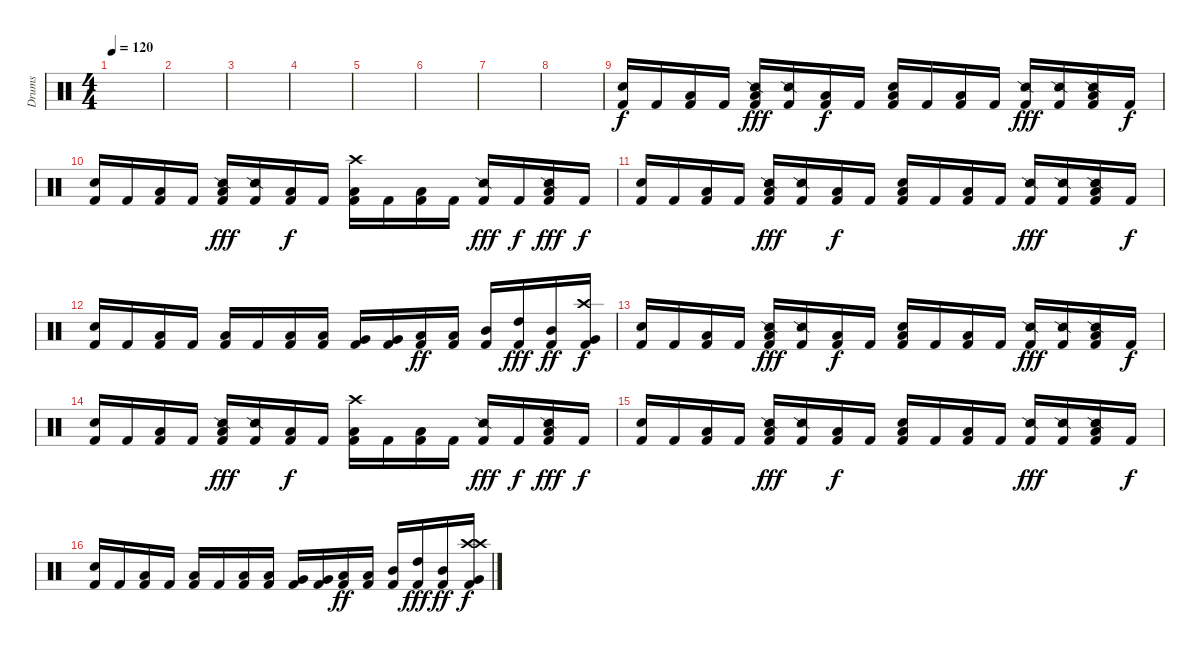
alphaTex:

\track ("Drums" "Drums") {instrument percussion}
\staff {score}
\articulation defaults
\ts (4 4)
\tempo 120
\clef neutral
\ks c
|
|
|
|
|
|
|
|
("Snare (hit) 2" "Kick (hit) 2").16 "Kick (hit) 2".16 ("Low Floor Tom (hit)" "Kick (hit) 2").16 "Kick (hit) 2".16 ("Snare (side stick) 2" "Low Floor Tom (hit)" "Kick (hit) 2").16{dy fff} ("Snare (side stick) 2" "Kick (hit) 2").16 ("Low Floor Tom (hit)" "Kick (hit) 2").16{dy f} "Kick (hit) 2".16 ("Snare (hit) 2" "Low Floor Tom (hit)" "Kick (hit) 2").16 "Kick (hit) 2".16 ("Low Floor Tom (hit)" "Kick (hit) 2").16 "Kick (hit) 2".16 ("Snare (side stick) 2" "Kick (hit) 2").16{dy fff} ("Snare (side stick) 2" "Kick (hit) 2").16 ("Snare (side stick) 2" "Low Floor Tom (hit)" "Kick (hit) 2").16 "Kick (hit) 2".16{dy f} |
("Snare (hit) 2" "Kick (hit) 2").16 "Kick (hit) 2".16 ("Low Floor Tom (hit)" "Kick (hit) 2").16 "Kick (hit) 2".16 ("Snare (side stick) 2" "Low Floor Tom (hit)" "Kick (hit) 2").16{dy fff} ("Snare (side stick) 2" "Kick (hit) 2").16 ("Low Floor Tom (hit)" "Kick (hit) 2").16{dy f} "Kick (hit) 2".16 ("Crash high (hit)" "Low Floor Tom (hit)" "Kick (hit) 2").16 "Kick (hit) 2".16 ("Low Floor Tom (hit)" "Kick (hit) 2").16 "Kick (hit) 2".16 ("Snare (side stick) 2" "Kick (hit) 2").16{dy fff} "Kick (hit) 2".16{dy f} ("Snare (side stick) 2" "Low Floor Tom (hit)" "Kick (hit) 2").16{dy fff} "Kick (hit) 2".16{dy f} |
("Snare (hit) 2" "Kick (hit) 2").16 "Kick (hit) 2".16 ("Low Floor Tom (hit)" "Kick (hit) 2").16 "Kick (hit) 2".16 ("Snare (side stick) 2" "Low Floor Tom (hit)" "Kick (hit) 2").16{dy fff} ("Snare (side stick) 2" "Kick (hit) 2").16 ("Low Floor Tom (hit)" "Kick (hit) 2").16{dy f} "Kick (hit) 2".16 ("Snare (hit) 2" "Low Floor Tom (hit)" "Kick (hit) 2").16 "Kick (hit) 2".16 ("Low Floor Tom (hit)" "Kick (hit) 2").16 "Kick (hit) 2".16 ("Snare (side stick) 2" "Kick (hit) 2").16{dy fff} ("Snare (side stick) 2" "Kick (hit) 2").16 ("Snare (side stick) 2" "Low Floor Tom (hit)" "Kick (hit) 2").16 "Kick (hit) 2".16{dy f} |
("Snare (hit) 2" "Kick (hit) 2").16 "Kick (hit) 2".16 ("Low Floor Tom (hit)" "Kick (hit) 2").16 "Kick (hit) 2".16 ("Low Floor Tom (hit)" "Kick (hit) 2").16 "Kick (hit) 2".16 ("Low Floor Tom (hit)" "Kick (hit) 2").16 ("Low Floor Tom (hit)" "Kick (hit) 2").16 ("Very Low Tom (hit)" "Kick (hit) 2").16 ("Very Low Tom (hit)" "Kick (hit) 2").16 ("Low Tom (hit)" "Kick (hit) 2").16{dy ff} ("Low Tom (hit)" "Kick (hit) 2").16 ("Mid Tom (hit)" "Kick (hit) 2").16 ("High Tom (hit)" "Kick (hit) 2").16{dy fff} ("Mid Tom (hit)" "Kick (hit) 2").16{dy ff} ("Crash high (hit)" "Very Low Tom (hit)" "Kick (hit) 2").16{dy f} |
("Snare (hit) 2" "Kick (hit) 2").16 "Kick (hit) 2".16 ("Low Floor Tom (hit)" "Kick (hit) 2").16 "Kick (hit) 2".16 ("Snare (side stick) 2" "Low Floor Tom (hit)" "Kick (hit) 2").16{dy fff} ("Snare (side stick) 2" "Kick (hit) 2").16 ("Low Floor Tom (hit)" "Kick (hit) 2").16{dy f} "Kick (hit) 2".16 ("Snare (hit) 2" "Low Floor Tom (hit)" "Kick (hit) 2").16 "Kick (hit) 2".16 ("Low Floor Tom (hit)" "Kick (hit) 2").16 "Kick (hit) 2".16 ("Snare (side stick) 2" "Kick (hit) 2").16{dy fff} ("Snare (side stick) 2" "Kick (hit) 2").16 ("Snare (side stick) 2" "Low Floor Tom (hit)" "Kick (hit) 2").16 "Kick (hit) 2".16{dy f} |
("Snare (hit) 2" "Kick (hit) 2").16 "Kick (hit) 2".16 ("Low Floor Tom (hit)" "Kick (hit) 2").16 "Kick (hit) 2".16 ("Snare (side stick) 2" "Low Floor Tom (hit)" "Kick (hit) 2").16{dy fff} ("Snare (side stick) 2" "Kick (hit) 2").16 ("Low Floor Tom (hit)" "Kick (hit) 2").16{dy f} "Kick (hit) 2".16 ("Crash high (hit)" "Low Floor Tom (hit)" "Kick (hit) 2").16 "Kick (hit) 2".16 ("Low Floor Tom (hit)" "Kick (hit) 2").16 "Kick (hit) 2".16 ("Snare (side stick) 2" "Kick (hit) 2").16{dy fff} "Kick (hit) 2".16{dy f} ("Snare (side stick) 2" "Low Floor Tom (hit)" "Kick (hit) 2").16{dy fff} "Kick (hit) 2".16{dy f} |
("Snare (hit) 2" "Kick (hit) 2").16 "Kick (hit) 2".16 ("Low Floor Tom (hit)" "Kick (hit) 2").16 "Kick (hit) 2".16 ("Snare (side stick) 2" "Low Floor Tom (hit)" "Kick (hit) 2").16{dy fff} ("Snare (side stick) 2" "Kick (hit) 2").16 ("Low Floor Tom (hit)" "Kick (hit) 2").16{dy f} "Kick (hit) 2".16 ("Snare (hit) 2" "Low Floor Tom (hit)" "Kick (hit) 2").16 "Kick (hit) 2".16 ("Low Floor Tom (hit)" "Kick (hit) 2").16 "Kick (hit) 2".16 ("Snare (side stick) 2" "Kick (hit) 2").16{dy fff} ("Snare (side stick) 2" "Kick (hit) 2").16 ("Snare (side stick) 2" "Low Floor Tom (hit)" "Kick (hit) 2").16 "Kick (hit) 2".16{dy f} |
("Snare (hit) 2" "Kick (hit) 2").16 "Kick (hit) 2".16 ("Low Floor Tom (hit)" "Kick (hit) 2").16 "Kick (hit) 2".16 ("Low Floor Tom (hit)" "Kick (hit) 2").16 "Kick (hit) 2".16 ("Low Floor Tom (hit)" "Kick (hit) 2").16 ("Low Floor Tom (hit)" "Kick (hit) 2").16 ("Very Low Tom (hit)" "Kick (hit) 2").16 ("Very Low Tom (hit)" "Kick (hit) 2").16 ("Low Tom (hit)" "Kick (hit) 2").16{dy ff} ("Low Tom (hit)" "Kick (hit) 2").16 ("Mid Tom (hit)" "Kick (hit) 2").16 ("High Tom (hit)" "Kick (hit) 2").16{dy fff} ("Mid Tom (hit)" "Kick (hit) 2").16{dy ff} ("Crash high (hit)" "Crash high (hit)" "Very Low Tom (hit)" "Kick (hit) 2").16{dy f}
